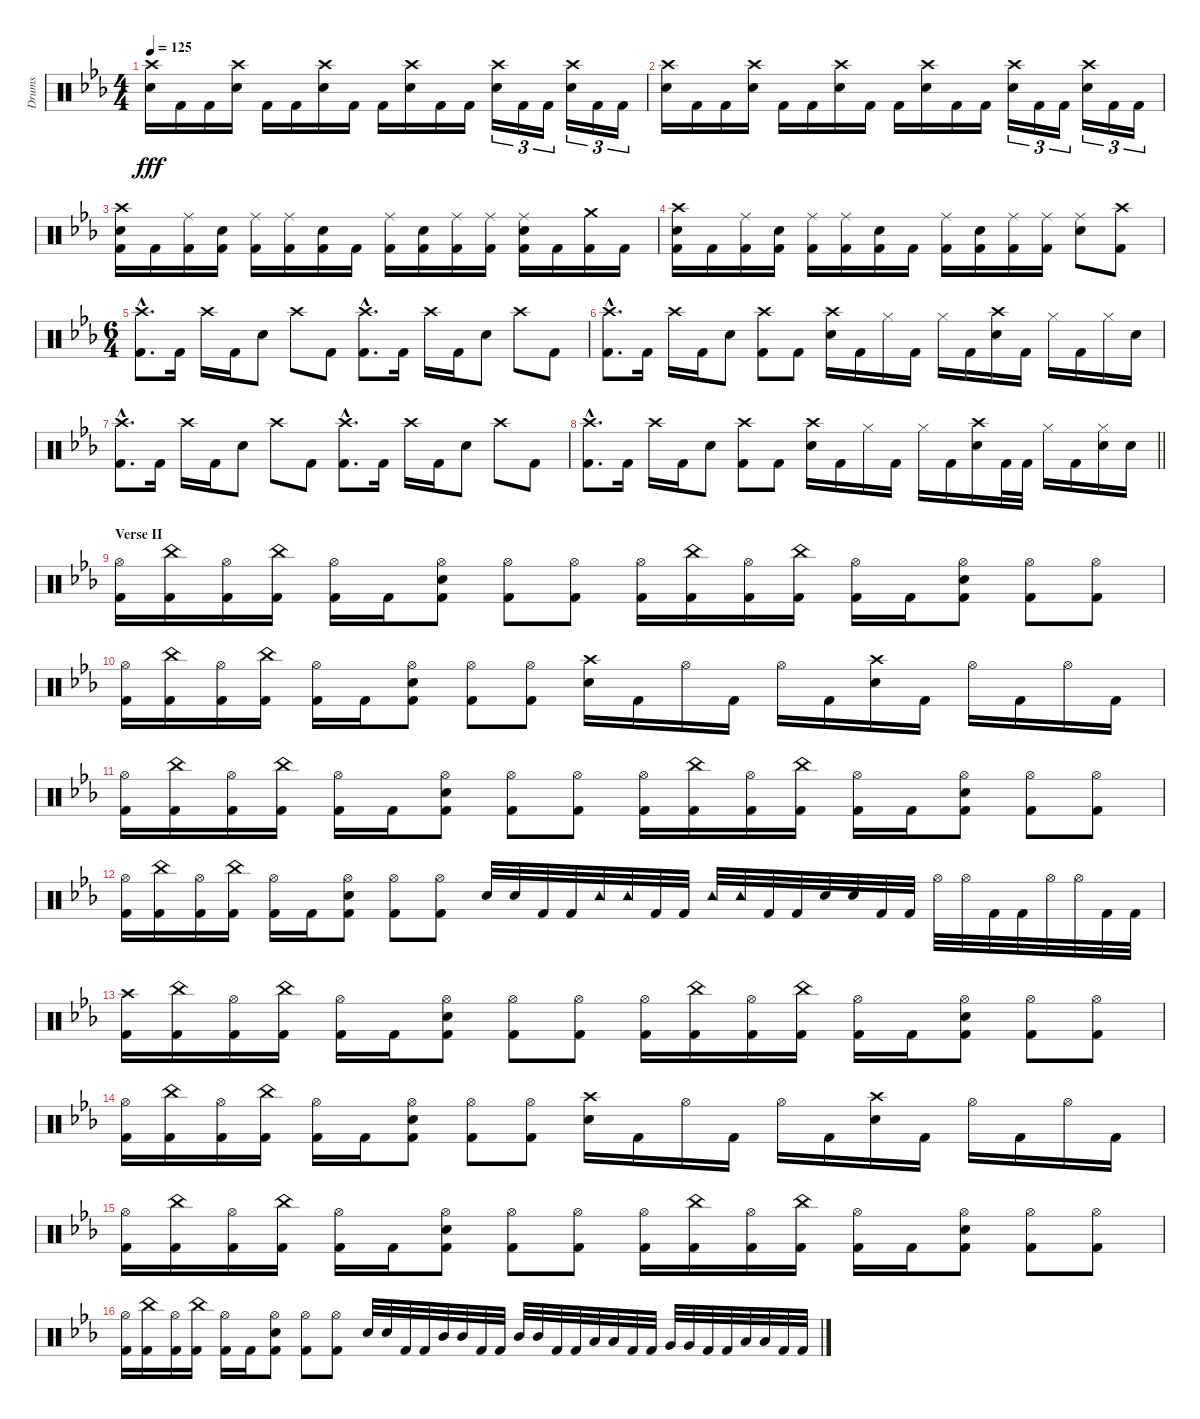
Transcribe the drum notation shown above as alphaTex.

\track ("Drums" "Drums") {instrument percussion}
\staff {score}
\articulation defaults
\ts (4 4)
\tempo 125
\clef neutral
\ks cminor
("Crash high (hit)" "Snare (hit) 2").16{dy fff} "Kick (hit) 2".16 "Kick (hit) 2".16 ("Crash high (hit)" "Snare (hit) 2").16 "Kick (hit) 2".16 "Kick (hit) 2".16 ("Crash high (hit)" "Snare (hit) 2").16 "Kick (hit) 2".16 "Kick (hit) 2".16 ("Crash high (hit)" "Snare (hit) 2").16 "Kick (hit) 2".16 "Kick (hit) 2".16 ("Crash high (hit)" "Snare (hit) 2").16{tu (3 2)} "Kick (hit) 2".16{tu (3 2)} "Kick (hit) 2".16{tu (3 2)} ("Crash high (hit)" "Snare (hit) 2").16{tu (3 2)} "Kick (hit) 2".16{tu (3 2)} "Kick (hit) 2".16{tu (3 2)} |
("Crash high (hit)" "Snare (hit) 2").16 "Kick (hit) 2".16 "Kick (hit) 2".16 ("Crash high (hit)" "Snare (hit) 2").16 "Kick (hit) 2".16 "Kick (hit) 2".16 ("Crash high (hit)" "Snare (hit) 2").16 "Kick (hit) 2".16 "Kick (hit) 2".16 ("Crash high (hit)" "Snare (hit) 2").16 "Kick (hit) 2".16 "Kick (hit) 2".16 ("Crash high (hit)" "Snare (hit) 2").16{tu (3 2)} "Kick (hit) 2".16{tu (3 2)} "Kick (hit) 2".16{tu (3 2)} ("Crash high (hit)" "Snare (hit) 2").16{tu (3 2)} "Kick (hit) 2".16{tu (3 2)} "Kick (hit) 2".16{tu (3 2)} |
("Crash high (hit)" "Snare (hit) 2" "Kick (hit) 2").16 "Kick (hit) 2".16 ("Ride (middle)" "Kick (hit) 2").16 ("Snare (hit) 2" "Kick (hit) 2").16 ("Ride (middle)" "Kick (hit) 2").16 ("Ride (middle)" "Kick (hit) 2").16 ("Snare (hit) 2" "Kick (hit) 2").16 "Kick (hit) 2".16 ("Ride (middle)" "Kick (hit) 2").16 ("Snare (hit) 2" "Kick (hit) 2").16 ("Ride (middle)" "Kick (hit) 2").16 ("Ride (middle)" "Kick (hit) 2").16 ("Ride (middle)" "Snare (hit) 2" "Kick (hit) 2").16 "Kick (hit) 2".16 ("Crash medium (hit)" "Kick (hit) 2").16 "Kick (hit) 2".16 |
("Crash high (hit)" "Snare (hit) 2" "Kick (hit) 2").16 "Kick (hit) 2".16 ("Ride (middle)" "Kick (hit) 2").16 ("Snare (hit) 2" "Kick (hit) 2").16 ("Ride (middle)" "Kick (hit) 2").16 ("Ride (middle)" "Kick (hit) 2").16 ("Snare (hit) 2" "Kick (hit) 2").16 "Kick (hit) 2".16 ("Ride (middle)" "Kick (hit) 2").16 ("Snare (hit) 2" "Kick (hit) 2").16 ("Ride (middle)" "Kick (hit) 2").16 ("Ride (middle)" "Kick (hit) 2").16 ("Ride (middle)" "Snare (hit) 2").8 ("Crash high (hit)" "Kick (hit) 2").8 |
\ts (6 4)
("Crash high (hit)"{hac} "Kick (hit) 2"{hac}).8{d} "Kick (hit) 2".16 "Crash high (hit)".16 "Kick (hit) 2".16 "Snare (hit) 2".8 "Crash high (hit)".8 "Kick (hit) 2".8 ("Crash high (hit)"{hac} "Kick (hit) 2"{hac}).8{d} "Kick (hit) 2".16 "Crash high (hit)".16 "Kick (hit) 2".16 "Snare (hit) 2".8 "Crash high (hit)".8 "Kick (hit) 2".8 |
("Crash high (hit)"{hac} "Kick (hit) 2"{hac}).8{d} "Kick (hit) 2".16 "Crash high (hit)".16 "Kick (hit) 2".16 "Snare (hit) 2".8 ("Crash high (hit)" "Kick (hit) 2").8 "Kick (hit) 2".8 ("Crash high (hit)" "Snare (hit) 2").16 "Kick (hit) 2".16 "Hi-Hat (closed)".16 "Kick (hit) 2".16 "Hi-Hat (closed)".16 "Kick (hit) 2".16 ("Crash high (hit)" "Snare (hit) 2").16 "Kick (hit) 2".16 "Hi-Hat (closed)".16 "Kick (hit) 2".16 "Hi-Hat (closed)".16 "Snare (hit) 2".16 |
("Crash high (hit)"{hac} "Kick (hit) 2"{hac}).8{d} "Kick (hit) 2".16 "Crash high (hit)".16 "Kick (hit) 2".16 "Snare (hit) 2".8 "Crash high (hit)".8 "Kick (hit) 2".8 ("Crash high (hit)"{hac} "Kick (hit) 2"{hac}).8{d} "Kick (hit) 2".16 "Crash high (hit)".16 "Kick (hit) 2".16 "Snare (hit) 2".8 "Crash high (hit)".8 "Kick (hit) 2".8 |
\barLineRight lightlight
("Crash high (hit)"{hac} "Kick (hit) 2"{hac}).8{d} "Kick (hit) 2".16 "Crash high (hit)".16 "Kick (hit) 2".16 "Snare (hit) 2".8 ("Crash high (hit)" "Kick (hit) 2").8 "Kick (hit) 2".8 ("Crash high (hit)" "Snare (hit) 2").16 "Kick (hit) 2".16 "Hi-Hat (closed)".16 "Kick (hit) 2".16 "Hi-Hat (closed)".16 "Kick (hit) 2".16 ("Crash high (hit)" "Snare (hit) 2").16 "Kick (hit) 2".32 "Kick (hit) 2".32 "Hi-Hat (closed)".16 "Kick (hit) 2".16 ("Hi-Hat (closed)" "Snare (hit) 2").16 "Snare (hit) 2".16 |
\section ("" "Verse II")
("Hi-Hat (open)" "Kick (hit) 2").16 ("China (hit)" "Kick (hit) 2").16 ("Hi-Hat (open)" "Kick (hit) 2").16 ("China (hit)" "Kick (hit) 2").16 ("Hi-Hat (open)" "Kick (hit) 2").16 "Kick (hit) 2".16 ("Hi-Hat (open)" "Snare (hit) 2" "Kick (hit) 2").8 ("Hi-Hat (open)" "Kick (hit) 2").8 ("Hi-Hat (open)" "Kick (hit) 2").8 ("Hi-Hat (open)" "Kick (hit) 2").16 ("China (hit)" "Kick (hit) 2").16 ("Hi-Hat (open)" "Kick (hit) 2").16 ("China (hit)" "Kick (hit) 2").16 ("Hi-Hat (open)" "Kick (hit) 2").16 "Kick (hit) 2".16 ("Hi-Hat (open)" "Snare (hit) 2" "Kick (hit) 2").8 ("Hi-Hat (open)" "Kick (hit) 2").8 ("Hi-Hat (open)" "Kick (hit) 2").8 |
("Hi-Hat (open)" "Kick (hit) 2").16 ("China (hit)" "Kick (hit) 2").16 ("Hi-Hat (open)" "Kick (hit) 2").16 ("China (hit)" "Kick (hit) 2").16 ("Hi-Hat (open)" "Kick (hit) 2").16 "Kick (hit) 2".16 ("Hi-Hat (open)" "Snare (hit) 2" "Kick (hit) 2").8 ("Hi-Hat (open)" "Kick (hit) 2").8 ("Hi-Hat (open)" "Kick (hit) 2").8 ("Crash high (hit)" "Snare (hit) 2").16 "Kick (hit) 2".16 "Hi-Hat (open)".16 "Kick (hit) 2".16 "Hi-Hat (open)".16 "Kick (hit) 2".16 ("Crash high (hit)" "Snare (hit) 2").16 "Kick (hit) 2".16 "Hi-Hat (open)".16 "Kick (hit) 2".16 "Hi-Hat (open)".16 "Kick (hit) 2".16 |
("Hi-Hat (open)" "Kick (hit) 2").16 ("China (hit)" "Kick (hit) 2").16 ("Hi-Hat (open)" "Kick (hit) 2").16 ("China (hit)" "Kick (hit) 2").16 ("Hi-Hat (open)" "Kick (hit) 2").16 "Kick (hit) 2".16 ("Hi-Hat (open)" "Snare (hit) 2" "Kick (hit) 2").8 ("Hi-Hat (open)" "Kick (hit) 2").8 ("Hi-Hat (open)" "Kick (hit) 2").8 ("Hi-Hat (open)" "Kick (hit) 2").16 ("China (hit)" "Kick (hit) 2").16 ("Hi-Hat (open)" "Kick (hit) 2").16 ("China (hit)" "Kick (hit) 2").16 ("Hi-Hat (open)" "Kick (hit) 2").16 "Kick (hit) 2".16 ("Hi-Hat (open)" "Snare (hit) 2" "Kick (hit) 2").8 ("Hi-Hat (open)" "Kick (hit) 2").8 ("Hi-Hat (open)" "Kick (hit) 2").8 |
("Hi-Hat (open)" "Kick (hit) 2").16 ("China (hit)" "Kick (hit) 2").16 ("Hi-Hat (open)" "Kick (hit) 2").16 ("China (hit)" "Kick (hit) 2").16 ("Hi-Hat (open)" "Kick (hit) 2").16 "Kick (hit) 2".16 ("Hi-Hat (open)" "Snare (hit) 2" "Kick (hit) 2").8 ("Hi-Hat (open)" "Kick (hit) 2").8 ("Hi-Hat (open)" "Kick (hit) 2").8 "Snare (hit) 2".32 "Snare (hit) 2".32 "Kick (hit) 2".32 "Kick (hit) 2".32 "Tambourine (hit)".32 "Tambourine (hit)".32 "Kick (hit) 2".32 "Kick (hit) 2".32 "Tambourine (hit)".32 "Tambourine (hit)".32 "Kick (hit) 2".32 "Kick (hit) 2".32 "Snare (hit) 2".32 "Snare (hit) 2".32 "Kick (hit) 2".32 "Kick (hit) 2".32 "Hi-Hat (open)".32 "Hi-Hat (open)".32 "Kick (hit) 2".32 "Kick (hit) 2".32 "Hi-Hat (open)".32 "Hi-Hat (open)".32 "Kick (hit) 2".32 "Kick (hit) 2".32 |
("Crash high (hit)" "Kick (hit) 2").16 ("China (hit)" "Kick (hit) 2").16 ("Hi-Hat (open)" "Kick (hit) 2").16 ("China (hit)" "Kick (hit) 2").16 ("Hi-Hat (open)" "Kick (hit) 2").16 "Kick (hit) 2".16 ("Hi-Hat (open)" "Snare (hit) 2" "Kick (hit) 2").8 ("Hi-Hat (open)" "Kick (hit) 2").8 ("Hi-Hat (open)" "Kick (hit) 2").8 ("Hi-Hat (open)" "Kick (hit) 2").16 ("China (hit)" "Kick (hit) 2").16 ("Hi-Hat (open)" "Kick (hit) 2").16 ("China (hit)" "Kick (hit) 2").16 ("Hi-Hat (open)" "Kick (hit) 2").16 "Kick (hit) 2".16 ("Hi-Hat (open)" "Snare (hit) 2" "Kick (hit) 2").8 ("Hi-Hat (open)" "Kick (hit) 2").8 ("Hi-Hat (open)" "Kick (hit) 2").8 |
("Hi-Hat (open)" "Kick (hit) 2").16 ("China (hit)" "Kick (hit) 2").16 ("Hi-Hat (open)" "Kick (hit) 2").16 ("China (hit)" "Kick (hit) 2").16 ("Hi-Hat (open)" "Kick (hit) 2").16 "Kick (hit) 2".16 ("Hi-Hat (open)" "Snare (hit) 2" "Kick (hit) 2").8 ("Hi-Hat (open)" "Kick (hit) 2").8 ("Hi-Hat (open)" "Kick (hit) 2").8 ("Crash high (hit)" "Snare (hit) 2").16 "Kick (hit) 2".16 "Hi-Hat (open)".16 "Kick (hit) 2".16 "Hi-Hat (open)".16 "Kick (hit) 2".16 ("Crash high (hit)" "Snare (hit) 2").16 "Kick (hit) 2".16 "Hi-Hat (open)".16 "Kick (hit) 2".16 "Hi-Hat (open)".16 "Kick (hit) 2".16 |
("Hi-Hat (open)" "Kick (hit) 2").16 ("China (hit)" "Kick (hit) 2").16 ("Hi-Hat (open)" "Kick (hit) 2").16 ("China (hit)" "Kick (hit) 2").16 ("Hi-Hat (open)" "Kick (hit) 2").16 "Kick (hit) 2".16 ("Hi-Hat (open)" "Snare (hit) 2" "Kick (hit) 2").8 ("Hi-Hat (open)" "Kick (hit) 2").8 ("Hi-Hat (open)" "Kick (hit) 2").8 ("Hi-Hat (open)" "Kick (hit) 2").16 ("China (hit)" "Kick (hit) 2").16 ("Hi-Hat (open)" "Kick (hit) 2").16 ("China (hit)" "Kick (hit) 2").16 ("Hi-Hat (open)" "Kick (hit) 2").16 "Kick (hit) 2".16 ("Hi-Hat (open)" "Snare (hit) 2" "Kick (hit) 2").8 ("Hi-Hat (open)" "Kick (hit) 2").8 ("Hi-Hat (open)" "Kick (hit) 2").8 |
("Hi-Hat (open)" "Kick (hit) 2").16 ("China (hit)" "Kick (hit) 2").16 ("Hi-Hat (open)" "Kick (hit) 2").16 ("China (hit)" "Kick (hit) 2").16 ("Hi-Hat (open)" "Kick (hit) 2").16 "Kick (hit) 2".16 ("Hi-Hat (open)" "Snare (hit) 2" "Kick (hit) 2").8 ("Hi-Hat (open)" "Kick (hit) 2").8 ("Hi-Hat (open)" "Kick (hit) 2").8 "Snare (hit) 2".32 "Snare (hit) 2".32 "Kick (hit) 2".32 "Kick (hit) 2".32 "Mid Tom (hit)".32 "Mid Tom (hit)".32 "Kick (hit) 2".32 "Kick (hit) 2".32 "Mid Tom (hit)".32 "Mid Tom (hit)".32 "Kick (hit) 2".32 "Kick (hit) 2".32 "Low Tom (hit)".32 "Low Tom (hit)".32 "Kick (hit) 2".32 "Kick (hit) 2".32 "Very Low Tom (hit)".32 "Very Low Tom (hit)".32 "Kick (hit) 2".32 "Kick (hit) 2".32 "Low Floor Tom (hit)".32 "Low Floor Tom (hit)".32 "Kick (hit) 2".32 "Kick (hit) 2".32
